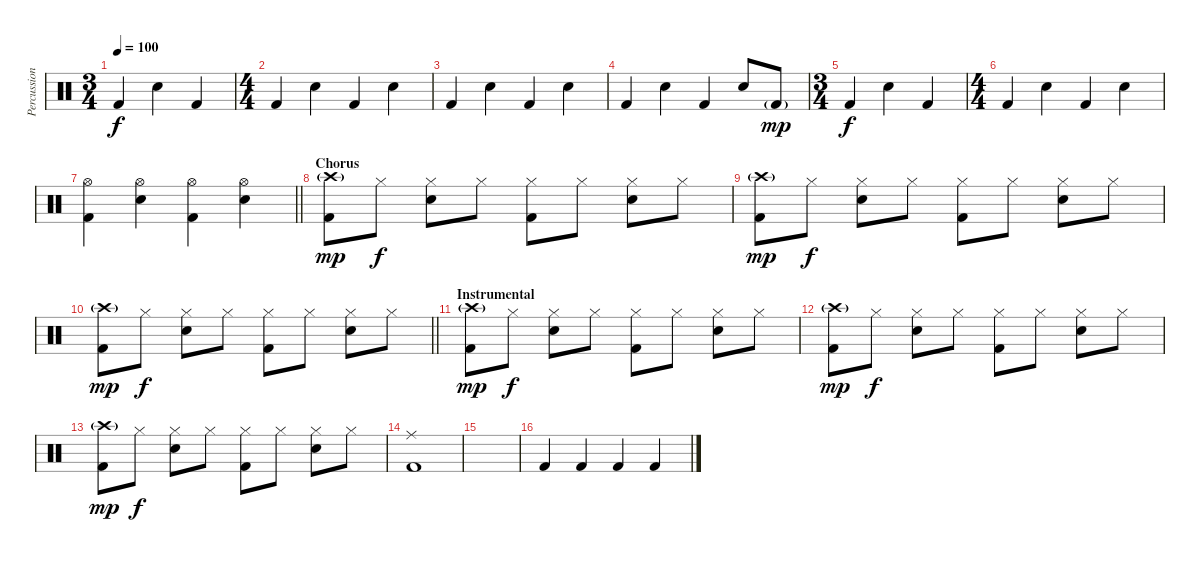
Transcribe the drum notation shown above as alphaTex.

\track ("Percussion" "Percussion") {instrument percussion}
\staff {score}
\articulation defaults
\ts (3 4)
\tempo 100
\clef neutral
\ks c "Kick (hit) 2".4{dy f} "Snare (hit) 2".4 "Kick (hit) 2".4
|
\ts (4 4)
"Kick (hit) 2".4 "Snare (hit) 2".4 "Kick (hit) 2".4 "Snare (hit) 2".4 |
"Kick (hit) 2".4 "Snare (hit) 2".4 "Kick (hit) 2".4 "Snare (hit) 2".4 |
"Kick (hit) 2".4 "Snare (hit) 2".4 "Kick (hit) 2".4 "Snare (hit) 2".8 "Kick (hit) 2"{g}.8{dy mp} |
\ts (3 4)
"Kick (hit) 2".4{dy f} "Snare (hit) 2".4 "Kick (hit) 2".4 |
\ts (4 4)
"Kick (hit) 2".4 "Snare (hit) 2".4 "Kick (hit) 2".4 "Snare (hit) 2".4 |
\barLineRight lightlight
("Hi-Hat (open)" "Kick (hit) 2").4 ("Hi-Hat (open)" "Snare (hit) 2").4 ("Hi-Hat (open)" "Kick (hit) 2").4 ("Hi-Hat (open)" "Snare (hit) 2").4 |
\section ("" "Chorus")
("Crash high (hit)"{g} "Kick (hit) 2").8{dy mp} "Hi-Hat (closed)".8{dy f} ("Hi-Hat (closed)" "Snare (hit) 2").8 "Hi-Hat (closed)".8 ("Hi-Hat (closed)" "Kick (hit) 2").8 "Hi-Hat (closed)".8 ("Hi-Hat (closed)" "Snare (hit) 2").8 "Hi-Hat (closed)".8 |
("Crash high (hit)"{g} "Kick (hit) 2").8{dy mp} "Hi-Hat (closed)".8{dy f} ("Hi-Hat (closed)" "Snare (hit) 2").8 "Hi-Hat (closed)".8 ("Hi-Hat (closed)" "Kick (hit) 2").8 "Hi-Hat (closed)".8 ("Hi-Hat (closed)" "Snare (hit) 2").8 "Hi-Hat (closed)".8 |
\barLineRight lightlight
("Crash high (hit)"{g} "Kick (hit) 2").8{dy mp} "Hi-Hat (closed)".8{dy f} ("Hi-Hat (closed)" "Snare (hit) 2").8 "Hi-Hat (closed)".8 ("Hi-Hat (closed)" "Kick (hit) 2").8 "Hi-Hat (closed)".8 ("Hi-Hat (closed)" "Snare (hit) 2").8 "Hi-Hat (closed)".8 |
\section ("" "Instrumental")
("Crash high (hit)"{g} "Kick (hit) 2").8{dy mp} "Hi-Hat (closed)".8{dy f} ("Hi-Hat (closed)" "Snare (hit) 2").8 "Hi-Hat (closed)".8 ("Hi-Hat (closed)" "Kick (hit) 2").8 "Hi-Hat (closed)".8 ("Hi-Hat (closed)" "Snare (hit) 2").8 "Hi-Hat (closed)".8 |
("Crash high (hit)"{g} "Kick (hit) 2").8{dy mp} "Hi-Hat (closed)".8{dy f} ("Hi-Hat (closed)" "Snare (hit) 2").8 "Hi-Hat (closed)".8 ("Hi-Hat (closed)" "Kick (hit) 2").8 "Hi-Hat (closed)".8 ("Hi-Hat (closed)" "Snare (hit) 2").8 "Hi-Hat (closed)".8 |
("Crash high (hit)"{g} "Kick (hit) 2").8{dy mp} "Hi-Hat (closed)".8{dy f} ("Hi-Hat (closed)" "Snare (hit) 2").8 "Hi-Hat (closed)".8 ("Hi-Hat (closed)" "Kick (hit) 2").8 "Hi-Hat (closed)".8 ("Hi-Hat (closed)" "Snare (hit) 2").8 "Hi-Hat (closed)".8 |
("Ride (middle)" "Kick (hit) 2").1 |
|
"Kick (hit) 2".4 "Kick (hit) 2".4 "Kick (hit) 2".4 "Kick (hit) 2".4
